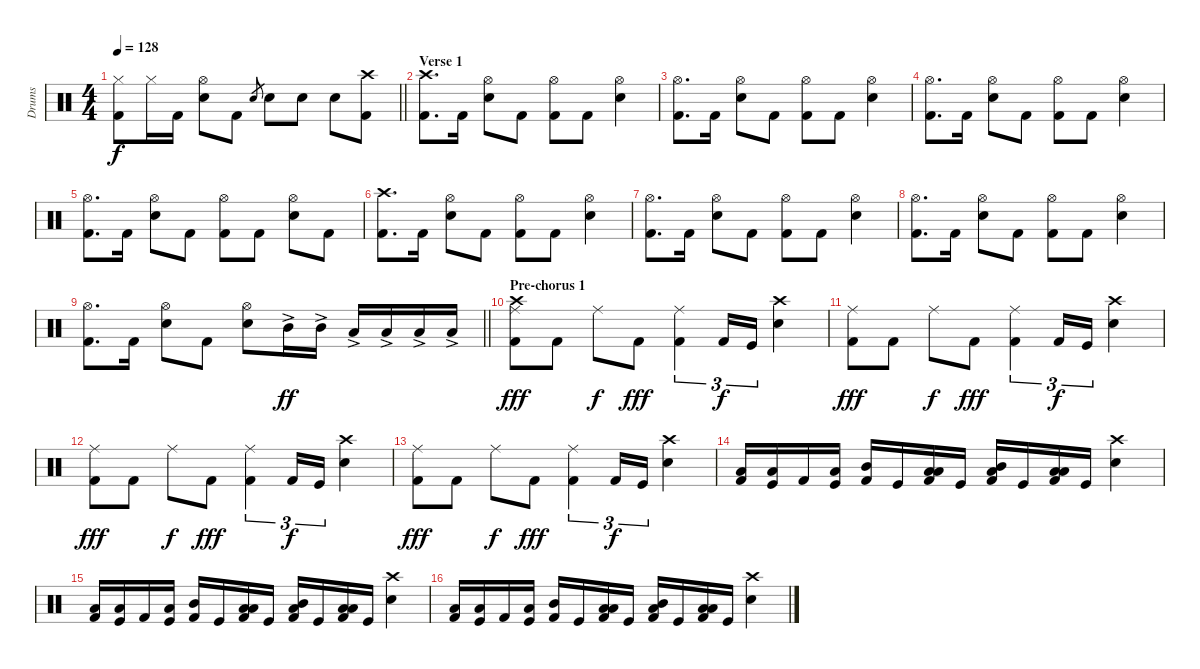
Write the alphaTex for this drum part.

\track ("Drums" "Drums") {instrument percussion}
\staff {score}
\articulation defaults
\ts (4 4)
\tempo 128
\clef neutral
\barLineRight lightlight
\ks c
("Hi-Hat (closed)" "Kick (hit) 2").8{dy f} "Hi-Hat (closed)".16 "Kick (hit) 2".16 ("Hi-Hat (open)" "Electric Snare (hit)").8 "Kick (hit) 2".8 "Electric Snare (hit)".8{gr} "Electric Snare (hit)".8 "Electric Snare (hit)".8 "Electric Snare (hit)".8 ("Crash high (hit)" "Kick (hit) 2").8 |
\section ("" "Verse 1")
("Crash high (hit)" "Kick (hit) 2").8{d} "Kick (hit) 2".16 ("Hi-Hat (open)" "Electric Snare (hit)").8 "Kick (hit) 2".8 ("Hi-Hat (open)" "Kick (hit) 2").8 "Kick (hit) 2".8 ("Hi-Hat (open)" "Electric Snare (hit)").4 |
("Hi-Hat (open)" "Kick (hit) 2").8{d} "Kick (hit) 2".16 ("Hi-Hat (open)" "Electric Snare (hit)").8 "Kick (hit) 2".8 ("Hi-Hat (open)" "Kick (hit) 2").8 "Kick (hit) 2".8 ("Hi-Hat (open)" "Electric Snare (hit)").4 |
("Hi-Hat (open)" "Kick (hit) 2").8{d} "Kick (hit) 2".16 ("Hi-Hat (open)" "Electric Snare (hit)").8 "Kick (hit) 2".8 ("Hi-Hat (open)" "Kick (hit) 2").8 "Kick (hit) 2".8 ("Hi-Hat (open)" "Electric Snare (hit)").4 |
("Hi-Hat (open)" "Kick (hit) 2").8{d} "Kick (hit) 2".16 ("Hi-Hat (open)" "Electric Snare (hit)").8 "Kick (hit) 2".8 ("Hi-Hat (open)" "Kick (hit) 2").8 "Kick (hit) 2".8 ("Hi-Hat (open)" "Electric Snare (hit)").8 "Kick (hit) 2".8 |
("Crash high (hit)" "Kick (hit) 2").8{d} "Kick (hit) 2".16 ("Hi-Hat (open)" "Electric Snare (hit)").8 "Kick (hit) 2".8 ("Hi-Hat (open)" "Kick (hit) 2").8 "Kick (hit) 2".8 ("Hi-Hat (open)" "Electric Snare (hit)").4 |
("Hi-Hat (open)" "Kick (hit) 2").8{d} "Kick (hit) 2".16 ("Hi-Hat (open)" "Electric Snare (hit)").8 "Kick (hit) 2".8 ("Hi-Hat (open)" "Kick (hit) 2").8 "Kick (hit) 2".8 ("Hi-Hat (open)" "Electric Snare (hit)").4 |
("Hi-Hat (open)" "Kick (hit) 2").8{d} "Kick (hit) 2".16 ("Hi-Hat (open)" "Electric Snare (hit)").8 "Kick (hit) 2".8 ("Hi-Hat (open)" "Kick (hit) 2").8 "Kick (hit) 2".8 ("Hi-Hat (open)" "Electric Snare (hit)").4 |
\barLineRight lightlight
("Hi-Hat (open)" "Kick (hit) 2").8{d} "Kick (hit) 2".16 ("Hi-Hat (open)" "Electric Snare (hit)").8 "Kick (hit) 2".8 ("Hi-Hat (open)" "Electric Snare (hit)").8 "Mid Tom (hit)"{ac}.16{dy ff} "Mid Tom (hit)"{ac}.16 "Low Tom (hit)"{ac}.16 "Low Tom (hit)"{ac}.16 "Low Floor Tom (hit)"{ac}.16 "Low Floor Tom (hit)"{ac}.16 |
\section ("" "Pre-chorus 1")
("Crash high (hit)" "Ride (middle)" "Kick (hit) 2").8{dy fff} "Kick (hit) 2".8 "Ride (middle)".8{dy f} "Kick (hit) 2".8{dy fff} ("Ride (middle)" "Kick (hit) 2").4{tu (3 2)} "Kick (hit) 2".16{tu (3 2) dy f} "Kick (hit)".16{tu (3 2)} ("Crash high (hit)" "Electric Snare (hit)").4 |
("Ride (middle)" "Kick (hit) 2").8{dy fff} "Kick (hit) 2".8 "Ride (middle)".8{dy f} "Kick (hit) 2".8{dy fff} ("Ride (middle)" "Kick (hit) 2").4{tu (3 2)} "Kick (hit) 2".16{tu (3 2) dy f} "Kick (hit)".16{tu (3 2)} ("Crash high (hit)" "Electric Snare (hit)").4 |
("Ride (middle)" "Kick (hit) 2").8{dy fff} "Kick (hit) 2".8 "Ride (middle)".8{dy f} "Kick (hit) 2".8{dy fff} ("Ride (middle)" "Kick (hit) 2").4{tu (3 2)} "Kick (hit) 2".16{tu (3 2) dy f} "Kick (hit)".16{tu (3 2)} ("Crash high (hit)" "Electric Snare (hit)").4 |
("Ride (middle)" "Kick (hit) 2").8{dy fff} "Kick (hit) 2".8 "Ride (middle)".8{dy f} "Kick (hit) 2".8{dy fff} ("Ride (middle)" "Kick (hit) 2").4{tu (3 2)} "Kick (hit) 2".16{tu (3 2) dy f} "Kick (hit)".16{tu (3 2)} ("Crash high (hit)" "Electric Snare (hit)").4 |
("Low Floor Tom (hit)" "Kick (hit) 2").16 ("Low Tom (hit)" "Kick (hit)").16 "Kick (hit) 2".16 ("Low Floor Tom (hit)" "Kick (hit)").16 ("Mid Tom (hit)" "Kick (hit) 2").16 "Kick (hit)".16 ("Low Tom (hit)" "Low Floor Tom (hit)" "Kick (hit) 2").16 "Kick (hit)".16 ("Mid Tom (hit)" "Low Tom (hit)" "Kick (hit) 2").16 "Kick (hit)".16 ("Low Tom (hit)" "Low Floor Tom (hit)" "Kick (hit) 2").16 "Kick (hit)".16 ("Crash high (hit)" "Electric Snare (hit)").4 |
("Low Floor Tom (hit)" "Kick (hit) 2").16 ("Low Tom (hit)" "Kick (hit)").16 "Kick (hit) 2".16 ("Low Floor Tom (hit)" "Kick (hit)").16 ("Mid Tom (hit)" "Kick (hit) 2").16 "Kick (hit)".16 ("Low Tom (hit)" "Low Floor Tom (hit)" "Kick (hit) 2").16 "Kick (hit)".16 ("Mid Tom (hit)" "Low Tom (hit)" "Kick (hit) 2").16 "Kick (hit)".16 ("Low Tom (hit)" "Low Floor Tom (hit)" "Kick (hit) 2").16 "Kick (hit)".16 ("Crash high (hit)" "Electric Snare (hit)").4 |
("Low Floor Tom (hit)" "Kick (hit) 2").16 ("Low Tom (hit)" "Kick (hit)").16 "Kick (hit) 2".16 ("Low Floor Tom (hit)" "Kick (hit)").16 ("Mid Tom (hit)" "Kick (hit) 2").16 "Kick (hit)".16 ("Low Tom (hit)" "Low Floor Tom (hit)" "Kick (hit) 2").16 "Kick (hit)".16 ("Mid Tom (hit)" "Low Tom (hit)" "Kick (hit) 2").16 "Kick (hit)".16 ("Low Tom (hit)" "Low Floor Tom (hit)" "Kick (hit) 2").16 "Kick (hit)".16 ("Crash high (hit)" "Electric Snare (hit)").4
